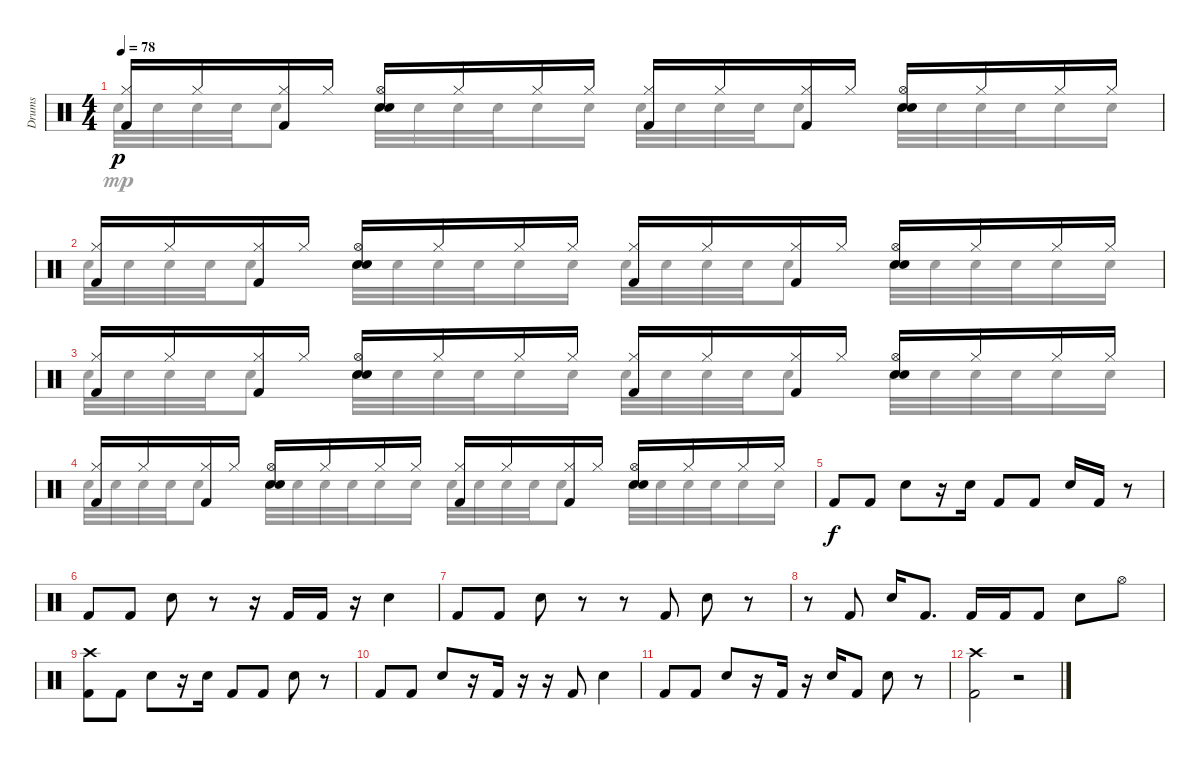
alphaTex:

\track ("Drums" "Drums") {instrument percussion}
\staff {score}
\articulation defaults
\voice
\ts (4 4)
\tempo 78
\clef neutral
\ks c
("Hi-Hat (closed)" "Kick (hit) 2").16{dy p} "Hi-Hat (closed)".16 ("Hi-Hat (closed)" "Kick (hit) 2").16 "Hi-Hat (closed)".16 ("Hi-Hat (open)" "Hand Clap (hit)" "Electric Snare (hit)").16 "Hi-Hat (closed)".16 "Hi-Hat (closed)".16 "Hi-Hat (closed)".16 ("Hi-Hat (closed)" "Kick (hit) 2").16 "Hi-Hat (closed)".16 ("Hi-Hat (closed)" "Kick (hit) 2").16 "Hi-Hat (closed)".16 ("Hi-Hat (open)" "Hand Clap (hit)" "Electric Snare (hit)").16 "Hi-Hat (closed)".16 "Hi-Hat (closed)".16 "Hi-Hat (closed)".16 |
("Hi-Hat (closed)" "Kick (hit) 2").16 "Hi-Hat (closed)".16 ("Hi-Hat (closed)" "Kick (hit) 2").16 "Hi-Hat (closed)".16 ("Hi-Hat (open)" "Hand Clap (hit)" "Electric Snare (hit)").16 "Hi-Hat (closed)".16 "Hi-Hat (closed)".16 "Hi-Hat (closed)".16 ("Hi-Hat (closed)" "Kick (hit) 2").16 "Hi-Hat (closed)".16 ("Hi-Hat (closed)" "Kick (hit) 2").16 "Hi-Hat (closed)".16 ("Hi-Hat (open)" "Hand Clap (hit)" "Electric Snare (hit)").16 "Hi-Hat (closed)".16 "Hi-Hat (closed)".16 "Hi-Hat (closed)".16 |
("Hi-Hat (closed)" "Kick (hit) 2").16 "Hi-Hat (closed)".16 ("Hi-Hat (closed)" "Kick (hit) 2").16 "Hi-Hat (closed)".16 ("Hi-Hat (open)" "Hand Clap (hit)" "Electric Snare (hit)").16 "Hi-Hat (closed)".16 "Hi-Hat (closed)".16 "Hi-Hat (closed)".16 ("Hi-Hat (closed)" "Kick (hit) 2").16 "Hi-Hat (closed)".16 ("Hi-Hat (closed)" "Kick (hit) 2").16 "Hi-Hat (closed)".16 ("Hi-Hat (open)" "Hand Clap (hit)" "Electric Snare (hit)").16 "Hi-Hat (closed)".16 "Hi-Hat (closed)".16 "Hi-Hat (closed)".16 |
("Hi-Hat (closed)" "Kick (hit) 2").16 "Hi-Hat (closed)".16 ("Hi-Hat (closed)" "Kick (hit) 2").16 "Hi-Hat (closed)".16 ("Hi-Hat (open)" "Hand Clap (hit)" "Electric Snare (hit)").16 "Hi-Hat (closed)".16 "Hi-Hat (closed)".16 "Hi-Hat (closed)".16 ("Hi-Hat (closed)" "Kick (hit) 2").16 "Hi-Hat (closed)".16 ("Hi-Hat (closed)" "Kick (hit) 2").16 "Hi-Hat (closed)".16 ("Hi-Hat (open)" "Hand Clap (hit)" "Electric Snare (hit)").16 "Hi-Hat (closed)".16 "Hi-Hat (closed)".16 "Hi-Hat (closed)".16 |
"Kick (hit) 2".8{dy f} "Kick (hit) 2".8 "Electric Snare (hit)".8 r.16 "Electric Snare (hit)".16 "Kick (hit) 2".8 "Kick (hit) 2".8 "Electric Snare (hit)".16 "Kick (hit) 2".16 r.8 |
"Kick (hit) 2".8 "Kick (hit) 2".8 "Electric Snare (hit)".8 r.8 r.16 "Kick (hit) 2".16 "Kick (hit) 2".16 r.16 "Electric Snare (hit)".4 |
"Kick (hit) 2".8 "Kick (hit) 2".8 "Electric Snare (hit)".8 r.8 r.8 "Kick (hit) 2".8 "Electric Snare (hit)".8 r.8 |
r.8 "Kick (hit) 2".8 "Electric Snare (hit)".16 "Kick (hit) 2".8{d} "Kick (hit) 2".16 "Kick (hit) 2".16 "Kick (hit) 2".8 "Electric Snare (hit)".8 "Hi-Hat (open)".8 |
("Crash high (hit)" "Kick (hit) 2").8 "Kick (hit) 2".8 "Electric Snare (hit)".8 r.16 "Electric Snare (hit)".16 "Kick (hit) 2".8 "Kick (hit) 2".8 "Electric Snare (hit)".8 r.8 |
"Kick (hit) 2".8 "Kick (hit) 2".8 "Electric Snare (hit)".8 r.16 "Kick (hit) 2".16 r.16 r.16 "Kick (hit) 2".8 "Electric Snare (hit)".4 |
"Kick (hit) 2".8 "Kick (hit) 2".8 "Electric Snare (hit)".8 r.16 "Kick (hit) 2".16 r.16 "Electric Snare (hit)".16 "Kick (hit) 2".8 "Electric Snare (hit)".8 r.8 |
("Crash high (hit)" "Kick (hit) 2").2 r.2 |
|
|
|
\voice
\clef neutral
\ottava regular
\simile none
\ks c "Snare (hit) 2".32{dy mp} "Snare (hit) 2".32 "Snare (hit) 2".32 "Snare (hit) 2".32 "Snare (hit) 2".8 "Snare (hit) 2".32 "Snare (hit) 2".32 "Snare (hit) 2".32 "Snare (hit) 2".32 "Snare (hit) 2".16 "Snare (hit) 2".16 "Snare (hit) 2".32 "Snare (hit) 2".32 "Snare (hit) 2".32 "Snare (hit) 2".32 "Snare (hit) 2".8 "Snare (hit) 2".32 "Snare (hit) 2".32 "Snare (hit) 2".32 "Snare (hit) 2".32 "Snare (hit) 2".16 "Snare (hit) 2".16
|
"Snare (hit) 2".32 "Snare (hit) 2".32 "Snare (hit) 2".32 "Snare (hit) 2".32 "Snare (hit) 2".8 "Snare (hit) 2".32 "Snare (hit) 2".32 "Snare (hit) 2".32 "Snare (hit) 2".32 "Snare (hit) 2".16 "Snare (hit) 2".16 "Snare (hit) 2".32 "Snare (hit) 2".32 "Snare (hit) 2".32 "Snare (hit) 2".32 "Snare (hit) 2".8 "Snare (hit) 2".32 "Snare (hit) 2".32 "Snare (hit) 2".32 "Snare (hit) 2".32 "Snare (hit) 2".16 "Snare (hit) 2".16 |
"Snare (hit) 2".32 "Snare (hit) 2".32 "Snare (hit) 2".32 "Snare (hit) 2".32 "Snare (hit) 2".8 "Snare (hit) 2".32 "Snare (hit) 2".32 "Snare (hit) 2".32 "Snare (hit) 2".32 "Snare (hit) 2".16 "Snare (hit) 2".16 "Snare (hit) 2".32 "Snare (hit) 2".32 "Snare (hit) 2".32 "Snare (hit) 2".32 "Snare (hit) 2".8 "Snare (hit) 2".32 "Snare (hit) 2".32 "Snare (hit) 2".32 "Snare (hit) 2".32 "Snare (hit) 2".16 "Snare (hit) 2".16 |
"Snare (hit) 2".32 "Snare (hit) 2".32 "Snare (hit) 2".32 "Snare (hit) 2".32 "Snare (hit) 2".8 "Snare (hit) 2".32 "Snare (hit) 2".32 "Snare (hit) 2".32 "Snare (hit) 2".32 "Snare (hit) 2".16 "Snare (hit) 2".16 "Snare (hit) 2".32 "Snare (hit) 2".32 "Snare (hit) 2".32 "Snare (hit) 2".32 "Snare (hit) 2".8 "Snare (hit) 2".32 "Snare (hit) 2".32 "Snare (hit) 2".32 "Snare (hit) 2".32 "Snare (hit) 2".16 "Snare (hit) 2".16 |
|
|
|
|
|
|
|
|
|
|
|
